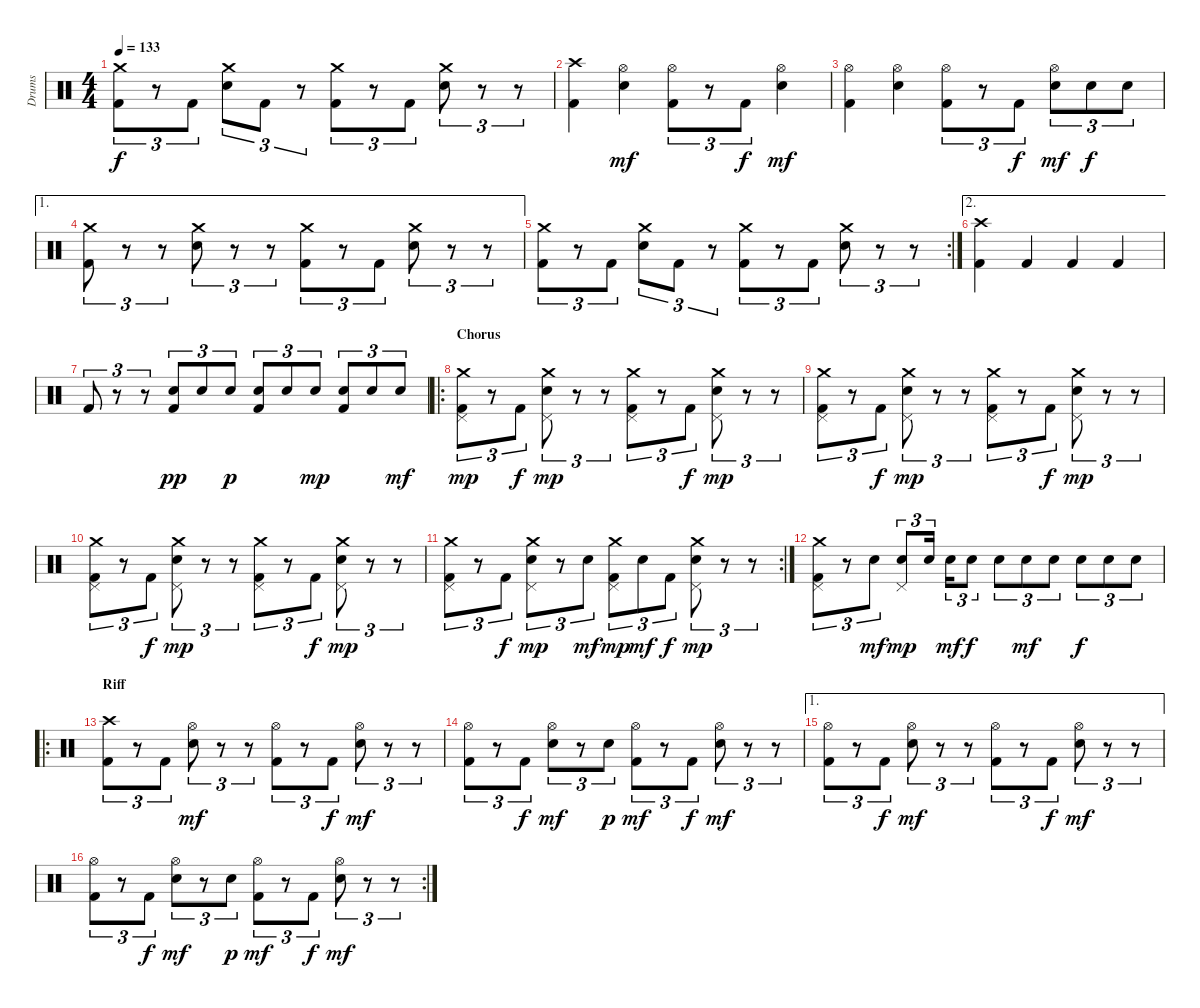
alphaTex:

\track ("Drums" "Drums") {instrument percussion}
\staff {score}
\articulation defaults
\ts (4 4)
\tempo 133
\clef neutral
\ks c
("Crash medium (hit)" "Kick (hit) 2").8{tu (3 2) dy f} r.8{tu (3 2)} "Kick (hit) 2".8{tu (3 2)} ("Crash medium (hit)" "Electric Snare (hit)").8{tu (3 2)} "Kick (hit) 2".8{tu (3 2)} r.8{tu (3 2)} ("Crash medium (hit)" "Kick (hit) 2").8{tu (3 2)} r.8{tu (3 2)} "Kick (hit) 2".8{tu (3 2)} ("Crash medium (hit)" "Electric Snare (hit)").8{tu (3 2)} r.8{tu (3 2)} r.8{tu (3 2)} |
("Crash high (hit)" "Kick (hit) 2").4 ("Hi-Hat (open)" "Electric Snare (hit)").4{dy mf} ("Hi-Hat (open)" "Kick (hit) 2").8{tu (3 2)} r.8{tu (3 2)} "Kick (hit) 2".8{tu (3 2) dy f} ("Hi-Hat (open)" "Electric Snare (hit)").4{dy mf} |
("Hi-Hat (open)" "Kick (hit) 2").4 ("Hi-Hat (open)" "Electric Snare (hit)").4 ("Hi-Hat (open)" "Kick (hit) 2").8{tu (3 2)} r.8{tu (3 2)} "Kick (hit) 2".8{tu (3 2) dy f} ("Hi-Hat (open)" "Electric Snare (hit)").8{tu (3 2) dy mf} "Electric Snare (hit)".8{tu (3 2) dy f} "Electric Snare (hit)".8{tu (3 2)} |
\ae 1
("Crash medium (hit)" "Kick (hit) 2").8{tu (3 2)} r.8{tu (3 2)} r.8{tu (3 2)} ("Crash medium (hit)" "Electric Snare (hit)").8{tu (3 2)} r.8{tu (3 2)} r.8{tu (3 2)} ("Crash medium (hit)" "Kick (hit) 2").8{tu (3 2)} r.8{tu (3 2)} "Kick (hit) 2".8{tu (3 2)} ("Crash medium (hit)" "Electric Snare (hit)").8{tu (3 2)} r.8{tu (3 2)} r.8{tu (3 2)} |
\rc 2
("Crash medium (hit)" "Kick (hit) 2").8{tu (3 2)} r.8{tu (3 2)} "Kick (hit) 2".8{tu (3 2)} ("Crash medium (hit)" "Electric Snare (hit)").8{tu (3 2)} "Kick (hit) 2".8{tu (3 2)} r.8{tu (3 2)} ("Crash medium (hit)" "Kick (hit) 2").8{tu (3 2)} r.8{tu (3 2)} "Kick (hit) 2".8{tu (3 2)} ("Crash medium (hit)" "Electric Snare (hit)").8{tu (3 2)} r.8{tu (3 2)} r.8{tu (3 2)} |
\ae 2
("Crash high (hit)" "Kick (hit) 2").4 "Kick (hit) 2".4 "Kick (hit) 2".4 "Kick (hit) 2".4 |
"Kick (hit) 2".8{tu (3 2)} r.8{tu (3 2)} r.8{tu (3 2)} ("Electric Snare (hit)" "Kick (hit) 2").8{tu (3 2) dy pp} "Electric Snare (hit)".8{tu (3 2)} "Electric Snare (hit)".8{tu (3 2) dy p} ("Electric Snare (hit)" "Kick (hit) 2").8{tu (3 2)} "Electric Snare (hit)".8{tu (3 2)} "Electric Snare (hit)".8{tu (3 2) dy mp} ("Electric Snare (hit)" "Kick (hit) 2").8{tu (3 2)} "Electric Snare (hit)".8{tu (3 2)} "Electric Snare (hit)".8{tu (3 2) dy mf} |
\ro
\section ("" "Chorus")
("Crash medium (hit)" "Pedal Hi-Hat (hit)" "Kick (hit) 2").8{tu (3 2) dy mp} r.8{tu (3 2)} "Kick (hit) 2".8{tu (3 2) dy f} ("Crash medium (hit)" "Electric Snare (hit)" "Pedal Hi-Hat (hit)").8{tu (3 2) dy mp} r.8{tu (3 2)} r.8{tu (3 2)} ("Crash medium (hit)" "Pedal Hi-Hat (hit)" "Kick (hit) 2").8{tu (3 2)} r.8{tu (3 2)} "Kick (hit) 2".8{tu (3 2) dy f} ("Crash medium (hit)" "Electric Snare (hit)" "Pedal Hi-Hat (hit)").8{tu (3 2) dy mp} r.8{tu (3 2)} r.8{tu (3 2)} |
("Crash medium (hit)" "Pedal Hi-Hat (hit)" "Kick (hit) 2").8{tu (3 2)} r.8{tu (3 2)} "Kick (hit) 2".8{tu (3 2) dy f} ("Crash medium (hit)" "Electric Snare (hit)" "Pedal Hi-Hat (hit)").8{tu (3 2) dy mp} r.8{tu (3 2)} r.8{tu (3 2)} ("Crash medium (hit)" "Pedal Hi-Hat (hit)" "Kick (hit) 2").8{tu (3 2)} r.8{tu (3 2)} "Kick (hit) 2".8{tu (3 2) dy f} ("Crash medium (hit)" "Electric Snare (hit)" "Pedal Hi-Hat (hit)").8{tu (3 2) dy mp} r.8{tu (3 2)} r.8{tu (3 2)} |
("Crash medium (hit)" "Pedal Hi-Hat (hit)" "Kick (hit) 2").8{tu (3 2)} r.8{tu (3 2)} "Kick (hit) 2".8{tu (3 2) dy f} ("Crash medium (hit)" "Electric Snare (hit)" "Pedal Hi-Hat (hit)").8{tu (3 2) dy mp} r.8{tu (3 2)} r.8{tu (3 2)} ("Crash medium (hit)" "Pedal Hi-Hat (hit)" "Kick (hit) 2").8{tu (3 2)} r.8{tu (3 2)} "Kick (hit) 2".8{tu (3 2) dy f} ("Crash medium (hit)" "Electric Snare (hit)" "Pedal Hi-Hat (hit)").8{tu (3 2) dy mp} r.8{tu (3 2)} r.8{tu (3 2)} |
\rc 2
("Crash medium (hit)" "Pedal Hi-Hat (hit)" "Kick (hit) 2").8{tu (3 2)} r.8{tu (3 2)} "Kick (hit) 2".8{tu (3 2) dy f} ("Crash medium (hit)" "Electric Snare (hit)" "Pedal Hi-Hat (hit)").8{tu (3 2) dy mp} r.8{tu (3 2)} "Electric Snare (hit)".8{tu (3 2) dy mf} ("Crash medium (hit)" "Pedal Hi-Hat (hit)" "Kick (hit) 2").8{tu (3 2) dy mp} "Electric Snare (hit)".8{tu (3 2) dy mf} "Kick (hit) 2".8{tu (3 2) dy f} ("Crash medium (hit)" "Electric Snare (hit)" "Pedal Hi-Hat (hit)").8{tu (3 2) dy mp} r.8{tu (3 2)} r.8{tu (3 2)} |
("Crash medium (hit)" "Pedal Hi-Hat (hit)" "Kick (hit) 2").8{tu (3 2)} r.8{tu (3 2)} "Electric Snare (hit)".8{tu (3 2) dy mf} ("Electric Snare (hit)" "Pedal Hi-Hat (hit)").8{tu (3 2) dy mp} "Electric Snare (hit)".16{tu (3 2)} "Electric Snare (hit)".16{tu (3 2) dy mf} "Electric Snare (hit)".8{tu (3 2) dy f} "Electric Snare (hit)".8{tu (3 2)} "Electric Snare (hit)".8{tu (3 2) dy mf} "Electric Snare (hit)".8{tu (3 2)} "Electric Snare (hit)".8{tu (3 2) dy f} "Electric Snare (hit)".8{tu (3 2)} "Electric Snare (hit)".8{tu (3 2)} |
\ro
\section ("" "Riff")
("Crash high (hit)" "Kick (hit) 2").8{tu (3 2)} r.8{tu (3 2)} "Kick (hit) 2".8{tu (3 2)} ("Hi-Hat (open)" "Electric Snare (hit)").8{tu (3 2) dy mf} r.8{tu (3 2)} r.8{tu (3 2)} ("Hi-Hat (open)" "Kick (hit) 2").8{tu (3 2)} r.8{tu (3 2)} "Kick (hit) 2".8{tu (3 2) dy f} ("Hi-Hat (open)" "Electric Snare (hit)").8{tu (3 2) dy mf} r.8{tu (3 2)} r.8{tu (3 2)} |
("Hi-Hat (open)" "Kick (hit) 2").8{tu (3 2)} r.8{tu (3 2)} "Kick (hit) 2".8{tu (3 2) dy f} ("Hi-Hat (open)" "Electric Snare (hit)").8{tu (3 2) dy mf} r.8{tu (3 2)} "Electric Snare (hit)".8{tu (3 2) dy p} ("Hi-Hat (open)" "Kick (hit) 2").8{tu (3 2) dy mf} r.8{tu (3 2)} "Kick (hit) 2".8{tu (3 2) dy f} ("Hi-Hat (open)" "Electric Snare (hit)").8{tu (3 2) dy mf} r.8{tu (3 2)} r.8{tu (3 2)} |
\ae 1
("Hi-Hat (open)" "Kick (hit) 2").8{tu (3 2)} r.8{tu (3 2)} "Kick (hit) 2".8{tu (3 2) dy f} ("Hi-Hat (open)" "Electric Snare (hit)").8{tu (3 2) dy mf} r.8{tu (3 2)} r.8{tu (3 2)} ("Hi-Hat (open)" "Kick (hit) 2").8{tu (3 2)} r.8{tu (3 2)} "Kick (hit) 2".8{tu (3 2) dy f} ("Hi-Hat (open)" "Electric Snare (hit)").8{tu (3 2) dy mf} r.8{tu (3 2)} r.8{tu (3 2)} |
\rc 2
("Hi-Hat (open)" "Kick (hit) 2").8{tu (3 2)} r.8{tu (3 2)} "Kick (hit) 2".8{tu (3 2) dy f} ("Hi-Hat (open)" "Electric Snare (hit)").8{tu (3 2) dy mf} r.8{tu (3 2)} "Electric Snare (hit)".8{tu (3 2) dy p} ("Hi-Hat (open)" "Kick (hit) 2").8{tu (3 2) dy mf} r.8{tu (3 2)} "Kick (hit) 2".8{tu (3 2) dy f} ("Hi-Hat (open)" "Electric Snare (hit)").8{tu (3 2) dy mf} r.8{tu (3 2)} r.8{tu (3 2)}
